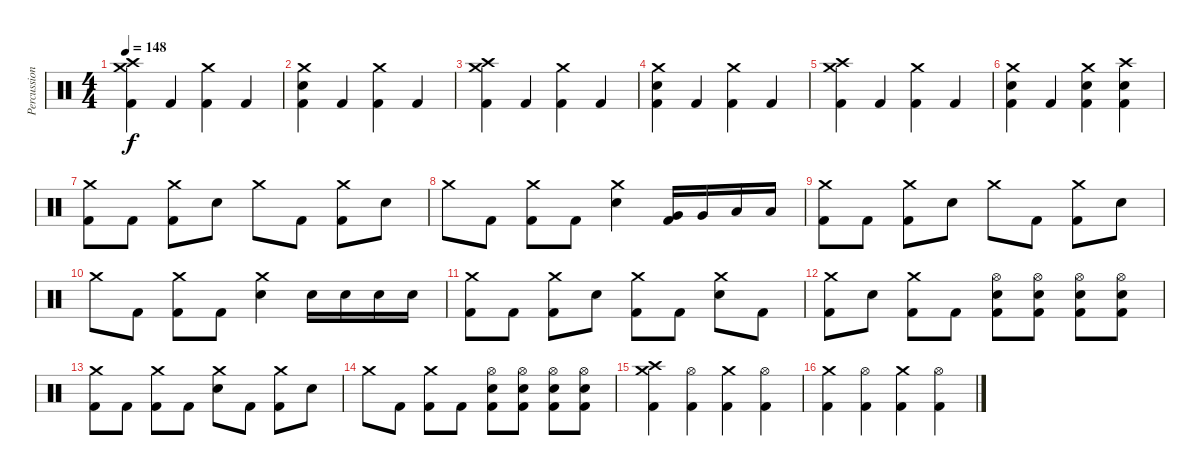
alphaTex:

\track ("Percussion" "Percussion") {instrument percussion}
\staff {score}
\articulation defaults
\ts (4 4)
\tempo 148
\clef neutral
\ks c
("Crash medium (hit)" "Crash high (hit)" "Kick (hit) 2").4{dy f} "Kick (hit) 2".4 ("Crash medium (hit)" "Kick (hit) 2").4 "Kick (hit) 2".4 |
("Crash medium (hit)" "Electric Snare (hit)" "Kick (hit) 2").4 "Kick (hit) 2".4 ("Crash medium (hit)" "Kick (hit) 2").4 "Kick (hit) 2".4 |
("Crash medium (hit)" "Crash high (hit)" "Kick (hit) 2").4 "Kick (hit) 2".4 ("Crash medium (hit)" "Kick (hit) 2").4 "Kick (hit) 2".4 |
("Crash medium (hit)" "Electric Snare (hit)" "Kick (hit) 2").4 "Kick (hit) 2".4 ("Crash medium (hit)" "Kick (hit) 2").4 "Kick (hit) 2".4 |
("Crash medium (hit)" "Crash high (hit)" "Kick (hit) 2").4 "Kick (hit) 2".4 ("Crash medium (hit)" "Kick (hit) 2").4 "Kick (hit) 2".4 |
("Crash medium (hit)" "Electric Snare (hit)" "Kick (hit) 2").4 "Kick (hit) 2".4 ("Crash medium (hit)" "Electric Snare (hit)" "Kick (hit) 2").4 ("Crash high (hit)" "Electric Snare (hit)" "Kick (hit) 2").4 |
("Crash medium (hit)" "Kick (hit) 2").8 "Kick (hit) 2".8 ("Crash medium (hit)" "Kick (hit) 2").8 "Electric Snare (hit)".8 "Crash medium (hit)".8 "Kick (hit) 2".8 ("Crash medium (hit)" "Kick (hit) 2").8 "Electric Snare (hit)".8 |
"Crash medium (hit)".8 "Kick (hit) 2".8 ("Crash medium (hit)" "Kick (hit) 2").8 "Kick (hit) 2".8 ("Crash medium (hit)" "Electric Snare (hit)").4 ("Very Low Tom (hit)" "Kick (hit) 2").16 "Very Low Tom (hit)".16 "Low Floor Tom (hit)".16 "Low Floor Tom (hit)".16 |
("Crash medium (hit)" "Kick (hit) 2").8 "Kick (hit) 2".8 ("Crash medium (hit)" "Kick (hit) 2").8 "Electric Snare (hit)".8 "Crash medium (hit)".8 "Kick (hit) 2".8 ("Crash medium (hit)" "Kick (hit) 2").8 "Electric Snare (hit)".8 |
"Crash medium (hit)".8 "Kick (hit) 2".8 ("Crash medium (hit)" "Kick (hit) 2").8 "Kick (hit) 2".8 ("Crash medium (hit)" "Electric Snare (hit)").4 "Electric Snare (hit)".16 "Electric Snare (hit)".16 "Electric Snare (hit)".16 "Electric Snare (hit)".16 |
("Crash medium (hit)" "Kick (hit) 2").8 "Kick (hit) 2".8 ("Crash medium (hit)" "Kick (hit) 2").8 "Electric Snare (hit)".8 ("Crash medium (hit)" "Kick (hit) 2").8 "Kick (hit) 2".8 ("Crash medium (hit)" "Electric Snare (hit)").8 "Kick (hit) 2".8 |
("Crash medium (hit)" "Kick (hit) 2").8 "Electric Snare (hit)".8 ("Crash medium (hit)" "Kick (hit) 2").8 "Kick (hit) 2".8 ("Hi-Hat (open)" "Electric Snare (hit)" "Kick (hit) 2").8 ("Hi-Hat (open)" "Electric Snare (hit)" "Kick (hit) 2").8 ("Hi-Hat (open)" "Electric Snare (hit)" "Kick (hit) 2").8 ("Hi-Hat (open)" "Electric Snare (hit)" "Kick (hit) 2").8 |
("Crash medium (hit)" "Kick (hit) 2").8 "Kick (hit) 2".8 ("Crash medium (hit)" "Kick (hit) 2").8 "Kick (hit) 2".8 ("Crash medium (hit)" "Electric Snare (hit)").8 "Kick (hit) 2".8 ("Crash medium (hit)" "Kick (hit) 2").8 "Electric Snare (hit)".8 |
"Crash medium (hit)".8 "Kick (hit) 2".8 ("Crash medium (hit)" "Kick (hit) 2").8 "Kick (hit) 2".8 ("Hi-Hat (open)" "Electric Snare (hit)" "Kick (hit) 2").8 ("Hi-Hat (open)" "Electric Snare (hit)" "Kick (hit) 2").8 ("Hi-Hat (open)" "Electric Snare (hit)" "Kick (hit) 2").8 ("Hi-Hat (open)" "Electric Snare (hit)" "Kick (hit) 2").8 |
("Crash medium (hit)" "Crash high (hit)" "Kick (hit) 2").4 ("Hi-Hat (open)" "Kick (hit) 2").4 ("Crash medium (hit)" "Kick (hit) 2").4 ("Hi-Hat (open)" "Kick (hit) 2").4 |
("Crash medium (hit)" "Kick (hit) 2").4 ("Hi-Hat (open)" "Kick (hit) 2").4 ("Crash medium (hit)" "Kick (hit) 2").4 ("Hi-Hat (open)" "Kick (hit) 2").4
